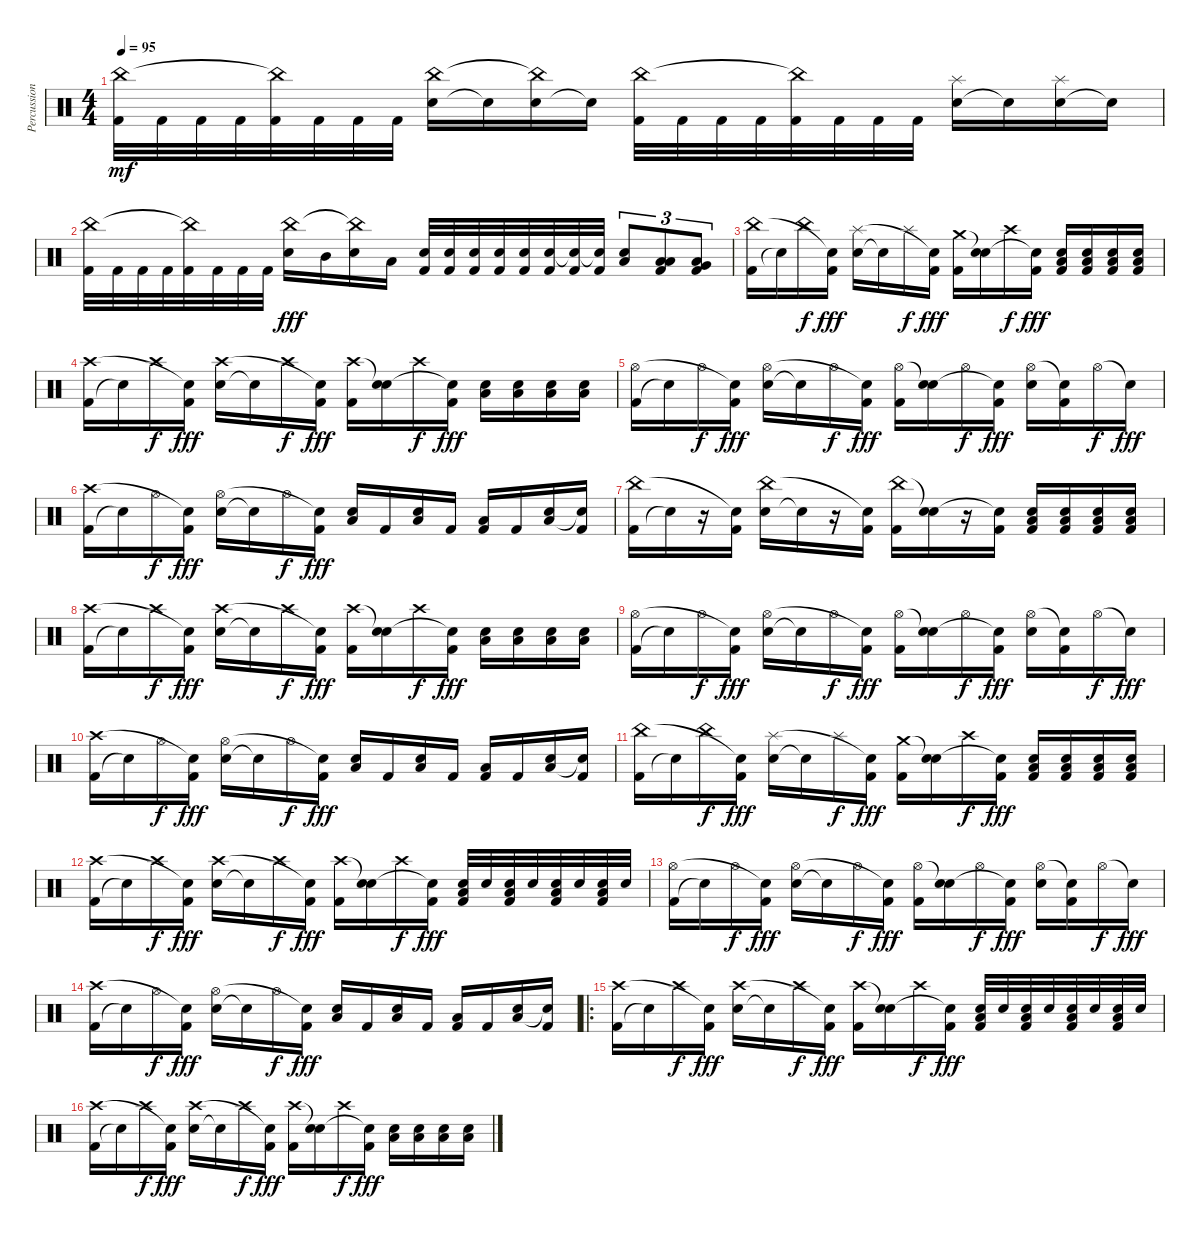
\track ("Percussion" "Percussion") {instrument percussion}
\staff {score}
\articulation defaults
\ts (4 4)
\tempo 95
\clef neutral
\ks c
("Kick (hit) 2" "China (hit)").32{dy mf} "Kick (hit) 2".32 "Kick (hit) 2".32 "Kick (hit) 2".32 ("Kick (hit) 2" "China (hit)"{t}).32 "Kick (hit) 2".32 "Kick (hit) 2".32 "Kick (hit) 2".32 ("Electric Snare (hit)" "China (hit)").16 "Snare (hit)"{t}.16 ("Electric Snare (hit)" "China (hit)"{t}).16 "Snare (hit)"{t}.16 ("Kick (hit) 2" "China (hit)").32 "Kick (hit) 2".32 "Kick (hit) 2".32 "Kick (hit) 2".32 ("Kick (hit) 2" "China (hit)"{t}).32 "Kick (hit) 2".32 "Kick (hit) 2".32 "Kick (hit) 2".32 ("Electric Snare (hit)" "Splash (hit)").16 "Snare (hit)"{t}.16 ("Electric Snare (hit)" "Splash (hit)").16 "Snare (hit)"{t}.16 |
("Kick (hit) 2" "China (hit)").32 "Kick (hit) 2".32 "Kick (hit) 2".32 "Kick (hit) 2".32 ("Kick (hit) 2" "China (hit)"{t}).32 "Kick (hit) 2".32 "Kick (hit) 2".32 "Kick (hit) 2".32 ("Electric Snare (hit)" "China (hit)").16{dy fff} "Mid Tom (hit)".16 ("Electric Snare (hit)" "China (hit)"{t}).16 "Low Tom (hit)".16 ("Electric Snare (hit)" "Kick (hit) 2").32 ("Electric Snare (hit)" "Kick (hit) 2").32 ("Electric Snare (hit)" "Kick (hit) 2").32 ("Electric Snare (hit)" "Kick (hit) 2").32 ("Electric Snare (hit)" "Kick (hit) 2").32 ("Electric Snare (hit)" "Kick (hit) 2").32 ("Electric Snare (hit)"{t} "Kick (hit) 2").32 ("Electric Snare (hit)"{t} "Kick (hit) 2").32 ("Electric Snare (hit)" "Low Floor Tom (hit)").8{tu (3 2)} ("Low Tom (hit)" "Kick (hit) 2" "Low Floor Tom (hit)").8{tu (3 2)} ("Very Low Tom (hit)" "Kick (hit) 2" "Low Floor Tom (hit)").8{tu (3 2)} |
("Kick (hit) 2" "China (hit)").16 "Snare (hit)"{t}.16 "China (hit)".16{dy f} ("Kick (hit) 2" "Snare (hit)"{t}).16{dy fff} ("Electric Snare (hit)" "Splash (hit)").16 "Snare (hit)"{t}.16 "Splash (hit)".16{dy f} ("Kick (hit) 2" "Snare (hit)"{t}).16{dy fff} ("Kick (hit) 2" "Crash medium (hit)").16 ("Electric Snare (hit)" "Snare (hit)"{t}).16 "Crash high (hit)".16{dy f} ("Kick (hit) 2" "Snare (hit)"{t}).16{dy fff} ("Kick (hit) 2" "Low Floor Tom (hit)" "Electric Snare (hit)").16 ("Kick (hit) 2" "Low Floor Tom (hit)" "Electric Snare (hit)").16 ("Kick (hit) 2" "Low Floor Tom (hit)" "Electric Snare (hit)").16 ("Kick (hit) 2" "Low Floor Tom (hit)" "Electric Snare (hit)").16 |
("Kick (hit) 2" "Crash high (hit)").16 "Snare (hit)"{t}.16 "Crash high (hit)".16{dy f} ("Kick (hit) 2" "Snare (hit)"{t}).16{dy fff} ("Electric Snare (hit)" "Crash high (hit)").16 "Snare (hit)"{t}.16 "Crash high (hit)".16{dy f} ("Kick (hit) 2" "Snare (hit)"{t}).16{dy fff} ("Kick (hit) 2" "Crash high (hit)").16 ("Electric Snare (hit)" "Snare (hit)"{t}).16 "Crash high (hit)".16{dy f} ("Kick (hit) 2" "Snare (hit)"{t}).16{dy fff} ("Electric Snare (hit)" "Low Floor Tom (hit)").16 ("Electric Snare (hit)" "Low Floor Tom (hit)").16 ("Electric Snare (hit)" "Low Floor Tom (hit)").16 ("Electric Snare (hit)" "Low Floor Tom (hit)").16 |
("Kick (hit) 2" "Hi-Hat (open)").16 "Snare (hit)"{t}.16 "Hi-Hat (open)".16{dy f} ("Kick (hit) 2" "Snare (hit)"{t}).16{dy fff} ("Electric Snare (hit)" "Hi-Hat (open)").16 "Snare (hit)"{t}.16 "Hi-Hat (open)".16{dy f} ("Kick (hit) 2" "Snare (hit)"{t}).16{dy fff} ("Kick (hit) 2" "Hi-Hat (open)").16 ("Electric Snare (hit)" "Snare (hit)"{t}).16 "Hi-Hat (open)".16{dy f} ("Kick (hit) 2" "Snare (hit)"{t}).16{dy fff} ("Electric Snare (hit)" "Hi-Hat (open)").16 ("Kick (hit) 2" "Snare (hit)"{t}).16 "Hi-Hat (open)".16{dy f} "Snare (hit)"{t}.16{dy fff} |
("Kick (hit) 2" "Crash high (hit)").16 "Snare (hit)"{t}.16 "Hi-Hat (open)".16{dy f} ("Kick (hit) 2" "Snare (hit)"{t}).16{dy fff} ("Electric Snare (hit)" "Hi-Hat (open)").16 "Snare (hit)"{t}.16 "Hi-Hat (open)".16{dy f} ("Kick (hit) 2" "Snare (hit)"{t}).16{dy fff} ("Electric Snare (hit)" "Low Floor Tom (hit)").16 "Kick (hit) 2".16 ("Electric Snare (hit)" "Low Floor Tom (hit)").16 "Kick (hit) 2".16 ("Kick (hit) 2" "Low Floor Tom (hit)").16 "Kick (hit) 2".16 ("Electric Snare (hit)" "Low Floor Tom (hit)").16 ("Kick (hit) 2" "Snare (hit)"{t}).16 |
("Kick (hit) 2" "China (hit)").16 "Snare (hit)"{t}.16 r.16 ("Kick (hit) 2" "Snare (hit)"{t}).16 ("Electric Snare (hit)" "China (hit)").16 "Snare (hit)"{t}.16 r.16 ("Kick (hit) 2" "Snare (hit)"{t}).16 ("Kick (hit) 2" "China (hit)").16 ("Electric Snare (hit)" "Snare (hit)"{t}).16 r.16 ("Kick (hit) 2" "Snare (hit)"{t}).16 ("Kick (hit) 2" "Low Floor Tom (hit)" "Electric Snare (hit)").16 ("Kick (hit) 2" "Low Floor Tom (hit)" "Electric Snare (hit)").16 ("Kick (hit) 2" "Low Floor Tom (hit)" "Electric Snare (hit)").16 ("Kick (hit) 2" "Low Floor Tom (hit)" "Electric Snare (hit)").16 |
("Kick (hit) 2" "Crash high (hit)").16 "Snare (hit)"{t}.16 "Crash high (hit)".16{dy f} ("Kick (hit) 2" "Snare (hit)"{t}).16{dy fff} ("Electric Snare (hit)" "Crash high (hit)").16 "Snare (hit)"{t}.16 "Crash high (hit)".16{dy f} ("Kick (hit) 2" "Snare (hit)"{t}).16{dy fff} ("Kick (hit) 2" "Crash high (hit)").16 ("Electric Snare (hit)" "Snare (hit)"{t}).16 "Crash high (hit)".16{dy f} ("Kick (hit) 2" "Snare (hit)"{t}).16{dy fff} ("Electric Snare (hit)" "Low Floor Tom (hit)").16 ("Electric Snare (hit)" "Low Floor Tom (hit)").16 ("Electric Snare (hit)" "Low Floor Tom (hit)").16 ("Electric Snare (hit)" "Low Floor Tom (hit)").16 |
("Kick (hit) 2" "Hi-Hat (open)").16 "Snare (hit)"{t}.16 "Hi-Hat (open)".16{dy f} ("Kick (hit) 2" "Snare (hit)"{t}).16{dy fff} ("Electric Snare (hit)" "Hi-Hat (open)").16 "Snare (hit)"{t}.16 "Hi-Hat (open)".16{dy f} ("Kick (hit) 2" "Snare (hit)"{t}).16{dy fff} ("Kick (hit) 2" "Hi-Hat (open)").16 ("Electric Snare (hit)" "Snare (hit)"{t}).16 "Hi-Hat (open)".16{dy f} ("Kick (hit) 2" "Snare (hit)"{t}).16{dy fff} ("Electric Snare (hit)" "Hi-Hat (open)").16 ("Kick (hit) 2" "Snare (hit)"{t}).16 "Hi-Hat (open)".16{dy f} "Snare (hit)"{t}.16{dy fff} |
("Kick (hit) 2" "Crash high (hit)").16 "Snare (hit)"{t}.16 "Hi-Hat (open)".16{dy f} ("Kick (hit) 2" "Snare (hit)"{t}).16{dy fff} ("Electric Snare (hit)" "Hi-Hat (open)").16 "Snare (hit)"{t}.16 "Hi-Hat (open)".16{dy f} ("Kick (hit) 2" "Snare (hit)"{t}).16{dy fff} ("Electric Snare (hit)" "Low Floor Tom (hit)").16 "Kick (hit) 2".16 ("Electric Snare (hit)" "Low Floor Tom (hit)").16 "Kick (hit) 2".16 ("Kick (hit) 2" "Low Floor Tom (hit)").16 "Kick (hit) 2".16 ("Electric Snare (hit)" "Low Floor Tom (hit)").16 ("Kick (hit) 2" "Snare (hit)"{t}).16 |
("Kick (hit) 2" "China (hit)").16 "Snare (hit)"{t}.16 "China (hit)".16{dy f} ("Kick (hit) 2" "Snare (hit)"{t}).16{dy fff} ("Electric Snare (hit)" "Splash (hit)").16 "Snare (hit)"{t}.16 "Splash (hit)".16{dy f} ("Kick (hit) 2" "Snare (hit)"{t}).16{dy fff} ("Kick (hit) 2" "Crash medium (hit)").16 ("Electric Snare (hit)" "Snare (hit)"{t}).16 "Crash high (hit)".16{dy f} ("Kick (hit) 2" "Snare (hit)"{t}).16{dy fff} ("Low Floor Tom (hit)" "Kick (hit) 2" "Electric Snare (hit)").16 ("Low Floor Tom (hit)" "Kick (hit) 2" "Electric Snare (hit)").16 ("Low Floor Tom (hit)" "Kick (hit) 2" "Electric Snare (hit)").16 ("Low Floor Tom (hit)" "Kick (hit) 2" "Electric Snare (hit)").16 |
("Kick (hit) 2" "Crash high (hit)").16 "Snare (hit)"{t}.16 "Crash high (hit)".16{dy f} ("Kick (hit) 2" "Snare (hit)"{t}).16{dy fff} ("Electric Snare (hit)" "Crash high (hit)").16 "Snare (hit)"{t}.16 "Crash high (hit)".16{dy f} ("Kick (hit) 2" "Snare (hit)"{t}).16{dy fff} ("Kick (hit) 2" "Crash high (hit)").16 ("Electric Snare (hit)" "Snare (hit)"{t}).16 "Crash high (hit)".16{dy f} ("Kick (hit) 2" "Snare (hit)"{t}).16{dy fff} ("Low Floor Tom (hit)" "Kick (hit) 2" "Electric Snare (hit)").32 "Electric Snare (hit)".32 ("Low Floor Tom (hit)" "Kick (hit) 2" "Electric Snare (hit)").32 "Electric Snare (hit)".32 ("Low Floor Tom (hit)" "Kick (hit) 2" "Electric Snare (hit)").32 "Electric Snare (hit)".32 ("Low Floor Tom (hit)" "Kick (hit) 2" "Electric Snare (hit)").32 "Electric Snare (hit)".32 |
("Kick (hit) 2" "Hi-Hat (open)").16 "Snare (hit)"{t}.16 "Hi-Hat (open)".16{dy f} ("Kick (hit) 2" "Snare (hit)"{t}).16{dy fff} ("Electric Snare (hit)" "Hi-Hat (open)").16 "Snare (hit)"{t}.16 "Hi-Hat (open)".16{dy f} ("Kick (hit) 2" "Snare (hit)"{t}).16{dy fff} ("Kick (hit) 2" "Hi-Hat (open)").16 ("Electric Snare (hit)" "Snare (hit)"{t}).16 "Hi-Hat (open)".16{dy f} ("Kick (hit) 2" "Snare (hit)"{t}).16{dy fff} ("Electric Snare (hit)" "Hi-Hat (open)").16 ("Kick (hit) 2" "Snare (hit)"{t}).16 "Hi-Hat (open)".16{dy f} "Snare (hit)"{t}.16{dy fff} |
("Kick (hit) 2" "Crash high (hit)").16 "Snare (hit)"{t}.16 "Hi-Hat (open)".16{dy f} ("Kick (hit) 2" "Snare (hit)"{t}).16{dy fff} ("Electric Snare (hit)" "Hi-Hat (open)").16 "Snare (hit)"{t}.16 "Hi-Hat (open)".16{dy f} ("Kick (hit) 2" "Snare (hit)"{t}).16{dy fff} ("Electric Snare (hit)" "Low Floor Tom (hit)").16 "Kick (hit) 2".16 ("Electric Snare (hit)" "Low Floor Tom (hit)").16 "Kick (hit) 2".16 ("Kick (hit) 2" "Low Floor Tom (hit)").16 "Kick (hit) 2".16 ("Electric Snare (hit)" "Low Floor Tom (hit)").16 ("Kick (hit) 2" "Snare (hit)"{t}).16 |
\ro
("Kick (hit) 2" "Crash high (hit)").16 "Snare (hit)"{t}.16 "Crash high (hit)".16{dy f} ("Kick (hit) 2" "Snare (hit)"{t}).16{dy fff} ("Electric Snare (hit)" "Crash high (hit)").16 "Snare (hit)"{t}.16 "Crash high (hit)".16{dy f} ("Kick (hit) 2" "Snare (hit)"{t}).16{dy fff} ("Kick (hit) 2" "Crash high (hit)").16 ("Electric Snare (hit)" "Snare (hit)"{t}).16 "Crash high (hit)".16{dy f} ("Kick (hit) 2" "Snare (hit)"{t}).16{dy fff} ("Low Floor Tom (hit)" "Kick (hit) 2" "Electric Snare (hit)").32 "Electric Snare (hit)".32 ("Low Floor Tom (hit)" "Kick (hit) 2" "Electric Snare (hit)").32 "Electric Snare (hit)".32 ("Low Floor Tom (hit)" "Kick (hit) 2" "Electric Snare (hit)").32 "Electric Snare (hit)".32 ("Low Floor Tom (hit)" "Kick (hit) 2" "Electric Snare (hit)").32 "Electric Snare (hit)".32 |
("Kick (hit) 2" "Crash high (hit)").16 "Snare (hit)"{t}.16 "Crash high (hit)".16{dy f} ("Kick (hit) 2" "Snare (hit)"{t}).16{dy fff} ("Electric Snare (hit)" "Crash high (hit)").16 "Snare (hit)"{t}.16 "Crash high (hit)".16{dy f} ("Kick (hit) 2" "Snare (hit)"{t}).16{dy fff} ("Kick (hit) 2" "Crash high (hit)").16 ("Electric Snare (hit)" "Snare (hit)"{t}).16 "Crash high (hit)".16{dy f} ("Kick (hit) 2" "Snare (hit)"{t}).16{dy fff} ("Electric Snare (hit)" "Low Floor Tom (hit)").16 ("Electric Snare (hit)" "Low Floor Tom (hit)").16 ("Electric Snare (hit)" "Low Floor Tom (hit)").16 ("Electric Snare (hit)" "Low Floor Tom (hit)").16
